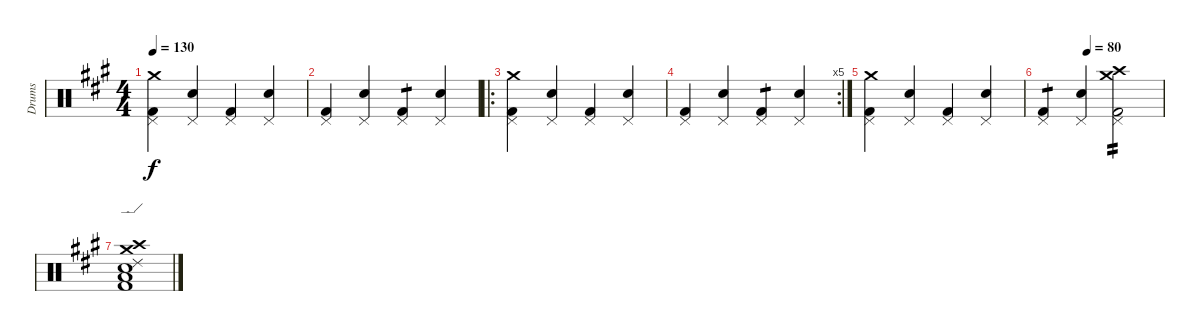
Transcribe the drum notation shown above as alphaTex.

\track ("Drums" "Drums") {instrument percussion}
\staff {score}
\articulation defaults
\ts (4 4)
\tempo 130
\clef neutral
\ks a
("Kick (hit) 2" "Pedal Hi-Hat (hit)" "Crash medium (hit)").4{dy f} ("Snare (hit) 2" "Pedal Hi-Hat (hit)").4 ("Kick (hit) 2" "Pedal Hi-Hat (hit)").4 ("Snare (hit) 2" "Pedal Hi-Hat (hit)").4 |
("Kick (hit) 2" "Pedal Hi-Hat (hit)").4 ("Snare (hit) 2" "Pedal Hi-Hat (hit)").4 ("Kick (hit) 2" "Pedal Hi-Hat (hit)").4{tp 1} ("Snare (hit) 2" "Pedal Hi-Hat (hit)").4 |
\ro
("Kick (hit) 2" "Pedal Hi-Hat (hit)" "Crash medium (hit)").4 ("Snare (hit) 2" "Pedal Hi-Hat (hit)").4 ("Kick (hit) 2" "Pedal Hi-Hat (hit)").4 ("Snare (hit) 2" "Pedal Hi-Hat (hit)").4 |
\rc 5
("Kick (hit) 2" "Pedal Hi-Hat (hit)").4 ("Snare (hit) 2" "Pedal Hi-Hat (hit)").4 ("Kick (hit) 2" "Pedal Hi-Hat (hit)").4{tp 1} ("Snare (hit) 2" "Pedal Hi-Hat (hit)").4 |
("Kick (hit) 2" "Pedal Hi-Hat (hit)" "Crash medium (hit)").4 ("Snare (hit) 2" "Pedal Hi-Hat (hit)").4 ("Kick (hit) 2" "Pedal Hi-Hat (hit)").4 ("Snare (hit) 2" "Pedal Hi-Hat (hit)").4 |
\tempo (80 0.375)
("Kick (hit) 2" "Pedal Hi-Hat (hit)").4{tp 1} ("Snare (hit) 2" "Pedal Hi-Hat (hit)").4 ("Kick (hit) 2" "Pedal Hi-Hat (hit)" "Crash medium (hit)" "Crash high (hit)").2{tp 2} |
("Snare (hit) 2" "Kick (hit) 2" "Low Floor Tom (hit)" "Crash medium (hit)" "Ride (edge) 2" "Crash high (hit)").1
